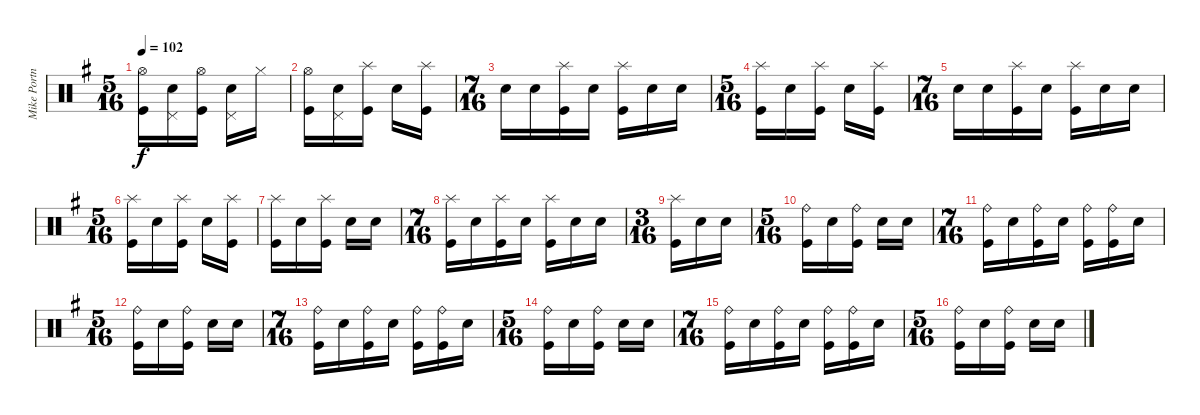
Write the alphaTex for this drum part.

\track ("Mike Portnoy" "Mike Portn") {instrument percussion}
\staff {score}
\articulation defaults
\ts (5 16)
\tempo 102
\clef neutral
\ks eminor
("Hi-Hat (open)" "Kick (hit)").16{dy f} ("Electric Snare (hit)" "Pedal Hi-Hat (hit)").16 ("Hi-Hat (open)" "Kick (hit)").16 ("Electric Snare (hit)" "Pedal Hi-Hat (hit)").16 "Hi-Hat (closed)".16 |
("Hi-Hat (open)" "Kick (hit)").16 ("Electric Snare (hit)" "Pedal Hi-Hat (hit)").16 ("Splash (hit)" "Kick (hit)").16 "Electric Snare (hit)".16 ("Splash (hit)" "Kick (hit)").16 |
\ts (7 16)
"Electric Snare (hit)".16 "Electric Snare (hit)".16 ("Splash (hit)" "Kick (hit)").16 "Electric Snare (hit)".16 ("Splash (hit)" "Kick (hit)").16 "Electric Snare (hit)".16 "Electric Snare (hit)".16 |
\ts (5 16)
("Splash (hit)" "Kick (hit)").16 "Electric Snare (hit)".16 ("Splash (hit)" "Kick (hit)").16 "Electric Snare (hit)".16 ("Splash (hit)" "Kick (hit)").16 |
\ts (7 16)
"Electric Snare (hit)".16 "Electric Snare (hit)".16 ("Splash (hit)" "Kick (hit)").16 "Electric Snare (hit)".16 ("Splash (hit)" "Kick (hit)").16 "Electric Snare (hit)".16 "Electric Snare (hit)".16 |
\ts (5 16)
("Splash (hit)" "Kick (hit)").16 "Electric Snare (hit)".16 ("Splash (hit)" "Kick (hit)").16 "Electric Snare (hit)".16 ("Splash (hit)" "Kick (hit)").16 |
("Splash (hit)" "Kick (hit)").16 "Electric Snare (hit)".16 ("Splash (hit)" "Kick (hit)").16 "Electric Snare (hit)".16 "Electric Snare (hit)".16 |
\ts (7 16)
("Splash (hit)" "Kick (hit)").16 "Electric Snare (hit)".16 ("Splash (hit)" "Kick (hit)").16 "Electric Snare (hit)".16 ("Splash (hit)" "Kick (hit)").16 "Electric Snare (hit)".16 "Electric Snare (hit)".16 |
\ts (3 16)
("Splash (hit)" "Kick (hit)").16 "Electric Snare (hit)".16 "Electric Snare (hit)".16 |
\ts (5 16)
("Ride (bell)" "Kick (hit)").16 "Electric Snare (hit)".16 ("Ride (bell)" "Kick (hit)").16 "Electric Snare (hit)".16 "Electric Snare (hit)".16 |
\ts (7 16)
("Ride (bell)" "Kick (hit)").16 "Electric Snare (hit)".16 ("Ride (bell)" "Kick (hit)").16 "Electric Snare (hit)".16 ("Ride (bell)" "Kick (hit)").16 ("Ride (bell)" "Kick (hit)").16 "Electric Snare (hit)".16 |
\ts (5 16)
("Ride (bell)" "Kick (hit)").16 "Electric Snare (hit)".16 ("Ride (bell)" "Kick (hit)").16 "Electric Snare (hit)".16 "Electric Snare (hit)".16 |
\ts (7 16)
("Ride (bell)" "Kick (hit)").16 "Electric Snare (hit)".16 ("Ride (bell)" "Kick (hit)").16 "Electric Snare (hit)".16 ("Ride (bell)" "Kick (hit)").16 ("Ride (bell)" "Kick (hit)").16 "Electric Snare (hit)".16 |
\ts (5 16)
("Ride (bell)" "Kick (hit)").16 "Electric Snare (hit)".16 ("Ride (bell)" "Kick (hit)").16 "Electric Snare (hit)".16 "Electric Snare (hit)".16 |
\ts (7 16)
("Ride (bell)" "Kick (hit)").16 "Electric Snare (hit)".16 ("Ride (bell)" "Kick (hit)").16 "Electric Snare (hit)".16 ("Ride (bell)" "Kick (hit)").16 ("Ride (bell)" "Kick (hit)").16 "Electric Snare (hit)".16 |
\ts (5 16)
("Ride (bell)" "Kick (hit)").16 "Electric Snare (hit)".16 ("Ride (bell)" "Kick (hit)").16 "Electric Snare (hit)".16 "Electric Snare (hit)".16
